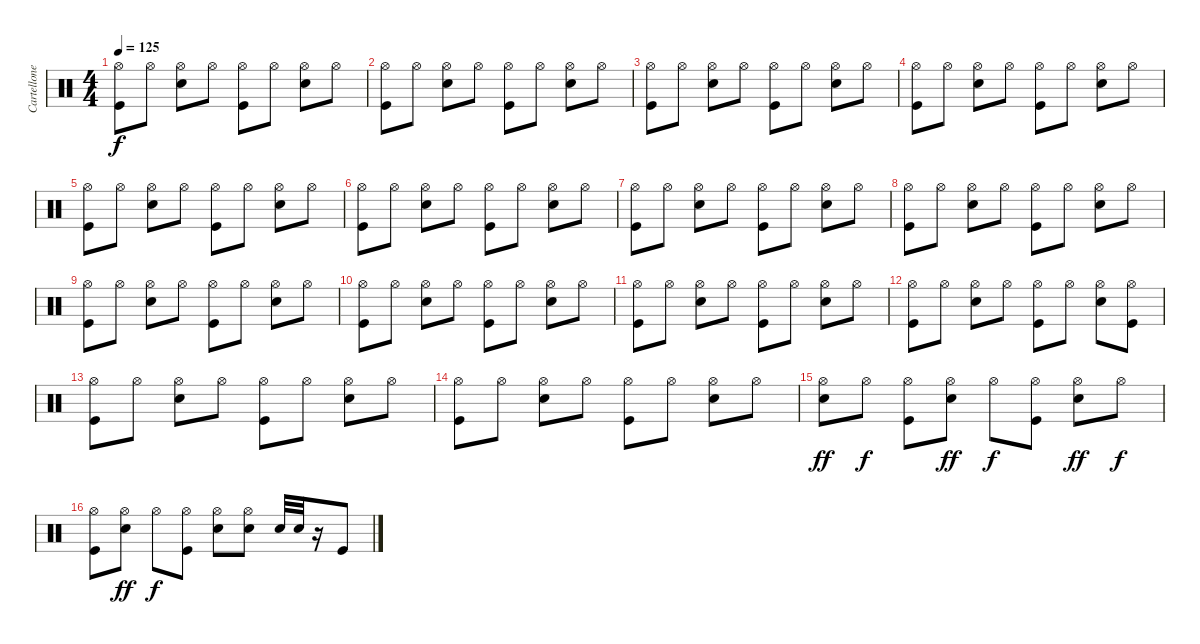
\track ("Cartellone" "Cartellone") {instrument percussion}
\staff {score}
\articulation defaults
\ts (4 4)
\tempo 125
\clef neutral
\ks c
("Hi-Hat (open)" "Kick (hit)").8{dy f} "Hi-Hat (open)".8 ("Hi-Hat (open)" "Snare (hit) 2").8 "Hi-Hat (open)".8 ("Hi-Hat (open)" "Kick (hit)").8 "Hi-Hat (open)".8 ("Hi-Hat (open)" "Snare (hit) 2").8 "Hi-Hat (open)".8 |
("Hi-Hat (open)" "Kick (hit)").8 "Hi-Hat (open)".8 ("Hi-Hat (open)" "Snare (hit) 2").8 "Hi-Hat (open)".8 ("Hi-Hat (open)" "Kick (hit)").8 "Hi-Hat (open)".8 ("Hi-Hat (open)" "Snare (hit) 2").8 "Hi-Hat (open)".8 |
("Hi-Hat (open)" "Kick (hit)").8 "Hi-Hat (open)".8 ("Hi-Hat (open)" "Snare (hit) 2").8 "Hi-Hat (open)".8 ("Hi-Hat (open)" "Kick (hit)").8 "Hi-Hat (open)".8 ("Hi-Hat (open)" "Snare (hit) 2").8 "Hi-Hat (open)".8 |
("Hi-Hat (open)" "Kick (hit)").8 "Hi-Hat (open)".8 ("Hi-Hat (open)" "Snare (hit) 2").8 "Hi-Hat (open)".8 ("Hi-Hat (open)" "Kick (hit)").8 "Hi-Hat (open)".8 ("Hi-Hat (open)" "Snare (hit) 2").8 "Hi-Hat (open)".8 |
("Hi-Hat (open)" "Kick (hit)").8 "Hi-Hat (open)".8 ("Hi-Hat (open)" "Snare (hit) 2").8 "Hi-Hat (open)".8 ("Hi-Hat (open)" "Kick (hit)").8 "Hi-Hat (open)".8 ("Hi-Hat (open)" "Snare (hit) 2").8 "Hi-Hat (open)".8 |
("Hi-Hat (open)" "Kick (hit)").8 "Hi-Hat (open)".8 ("Hi-Hat (open)" "Snare (hit) 2").8 "Hi-Hat (open)".8 ("Hi-Hat (open)" "Kick (hit)").8 "Hi-Hat (open)".8 ("Hi-Hat (open)" "Snare (hit) 2").8 "Hi-Hat (open)".8 |
("Hi-Hat (open)" "Kick (hit)").8 "Hi-Hat (open)".8 ("Hi-Hat (open)" "Snare (hit) 2").8 "Hi-Hat (open)".8 ("Hi-Hat (open)" "Kick (hit)").8 "Hi-Hat (open)".8 ("Hi-Hat (open)" "Snare (hit) 2").8 "Hi-Hat (open)".8 |
("Hi-Hat (open)" "Kick (hit)").8 "Hi-Hat (open)".8 ("Hi-Hat (open)" "Snare (hit) 2").8 "Hi-Hat (open)".8 ("Hi-Hat (open)" "Kick (hit)").8 "Hi-Hat (open)".8 ("Hi-Hat (open)" "Snare (hit) 2").8 "Hi-Hat (open)".8 |
("Hi-Hat (open)" "Kick (hit)").8 "Hi-Hat (open)".8 ("Hi-Hat (open)" "Snare (hit) 2").8 "Hi-Hat (open)".8 ("Hi-Hat (open)" "Kick (hit)").8 "Hi-Hat (open)".8 ("Hi-Hat (open)" "Snare (hit) 2").8 "Hi-Hat (open)".8 |
("Hi-Hat (open)" "Kick (hit)").8 "Hi-Hat (open)".8 ("Hi-Hat (open)" "Snare (hit) 2").8 "Hi-Hat (open)".8 ("Hi-Hat (open)" "Kick (hit)").8 "Hi-Hat (open)".8 ("Hi-Hat (open)" "Snare (hit) 2").8 "Hi-Hat (open)".8 |
("Hi-Hat (open)" "Kick (hit)").8 "Hi-Hat (open)".8 ("Hi-Hat (open)" "Snare (hit) 2").8 "Hi-Hat (open)".8 ("Hi-Hat (open)" "Kick (hit)").8 "Hi-Hat (open)".8 ("Hi-Hat (open)" "Snare (hit) 2").8 "Hi-Hat (open)".8 |
("Hi-Hat (open)" "Kick (hit)").8 "Hi-Hat (open)".8 ("Hi-Hat (open)" "Snare (hit) 2").8 "Hi-Hat (open)".8 ("Hi-Hat (open)" "Kick (hit)").8 "Hi-Hat (open)".8 ("Hi-Hat (open)" "Snare (hit) 2").8 ("Hi-Hat (open)" "Kick (hit)").8 |
("Hi-Hat (open)" "Kick (hit)").8 "Hi-Hat (open)".8 ("Hi-Hat (open)" "Snare (hit) 2").8 "Hi-Hat (open)".8 ("Hi-Hat (open)" "Kick (hit)").8 "Hi-Hat (open)".8 ("Hi-Hat (open)" "Snare (hit) 2").8 "Hi-Hat (open)".8 |
("Hi-Hat (open)" "Kick (hit)").8 "Hi-Hat (open)".8 ("Hi-Hat (open)" "Snare (hit) 2").8 "Hi-Hat (open)".8 ("Hi-Hat (open)" "Kick (hit)").8 "Hi-Hat (open)".8 ("Hi-Hat (open)" "Snare (hit) 2").8 "Hi-Hat (open)".8 |
("Hi-Hat (open)" "Snare (hit) 2").8{dy ff} "Hi-Hat (open)".8{dy f} ("Hi-Hat (open)" "Kick (hit)").8 ("Hi-Hat (open)" "Snare (hit) 2").8{dy ff} "Hi-Hat (open)".8{dy f} ("Hi-Hat (open)" "Kick (hit)").8 ("Hi-Hat (open)" "Snare (hit) 2").8{dy ff} "Hi-Hat (open)".8{dy f} |
("Hi-Hat (open)" "Kick (hit)").8 ("Hi-Hat (open)" "Snare (hit) 2").8{dy ff} "Hi-Hat (open)".8{dy f} ("Hi-Hat (open)" "Kick (hit)").8 ("Hi-Hat (open)" "Snare (hit) 2").8 ("Hi-Hat (open)" "Snare (hit) 2").8 "Snare (hit) 2".32 "Snare (hit) 2".32 r.16 "Kick (hit)".8
